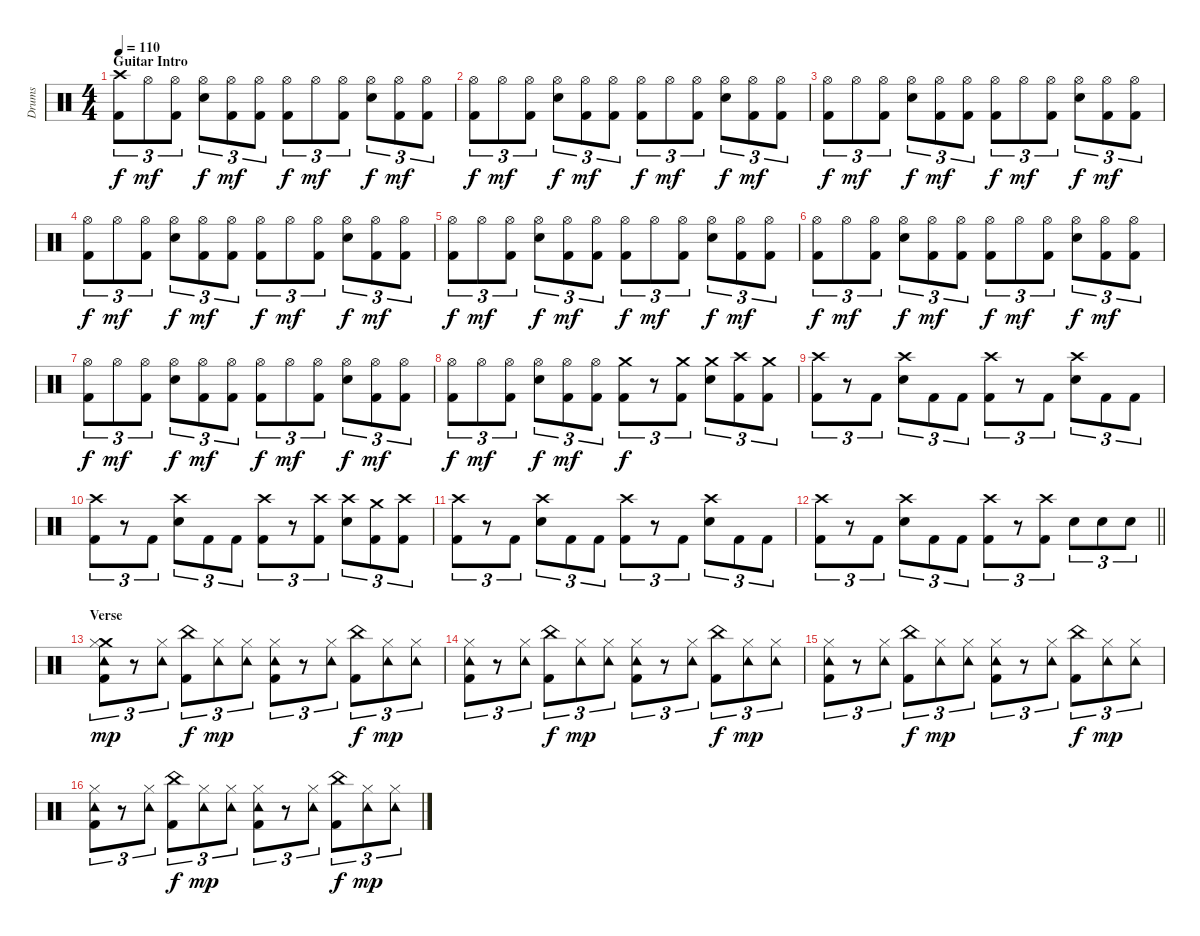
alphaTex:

\track ("Drums" "Drums") {instrument percussion}
\staff {score}
\articulation defaults
\ts (4 4)
\section ("" "Guitar Intro")
\tempo 110
\clef neutral
\ks c
("Crash high (hit)" "Kick (hit) 2").8{tu (3 2) dy f} "Hi-Hat (open)".8{tu (3 2) dy mf} ("Hi-Hat (open)" "Kick (hit) 2").8{tu (3 2)} ("Hi-Hat (open)" "Electric Snare (hit)").8{tu (3 2) dy f} ("Hi-Hat (open)" "Kick (hit) 2").8{tu (3 2) dy mf} ("Hi-Hat (open)" "Kick (hit) 2").8{tu (3 2)} ("Hi-Hat (open)" "Kick (hit) 2").8{tu (3 2) dy f} "Hi-Hat (open)".8{tu (3 2) dy mf} ("Hi-Hat (open)" "Kick (hit) 2").8{tu (3 2)} ("Hi-Hat (open)" "Electric Snare (hit)").8{tu (3 2) dy f} ("Hi-Hat (open)" "Kick (hit) 2").8{tu (3 2) dy mf} ("Hi-Hat (open)" "Kick (hit) 2").8{tu (3 2)} |
("Hi-Hat (open)" "Kick (hit) 2").8{tu (3 2) dy f} "Hi-Hat (open)".8{tu (3 2) dy mf} ("Hi-Hat (open)" "Kick (hit) 2").8{tu (3 2)} ("Hi-Hat (open)" "Electric Snare (hit)").8{tu (3 2) dy f} ("Hi-Hat (open)" "Kick (hit) 2").8{tu (3 2) dy mf} ("Hi-Hat (open)" "Kick (hit) 2").8{tu (3 2)} ("Hi-Hat (open)" "Kick (hit) 2").8{tu (3 2) dy f} "Hi-Hat (open)".8{tu (3 2) dy mf} ("Hi-Hat (open)" "Kick (hit) 2").8{tu (3 2)} ("Hi-Hat (open)" "Electric Snare (hit)").8{tu (3 2) dy f} ("Hi-Hat (open)" "Kick (hit) 2").8{tu (3 2) dy mf} ("Hi-Hat (open)" "Kick (hit) 2").8{tu (3 2)} |
("Hi-Hat (open)" "Kick (hit) 2").8{tu (3 2) dy f} "Hi-Hat (open)".8{tu (3 2) dy mf} ("Hi-Hat (open)" "Kick (hit) 2").8{tu (3 2)} ("Hi-Hat (open)" "Electric Snare (hit)").8{tu (3 2) dy f} ("Hi-Hat (open)" "Kick (hit) 2").8{tu (3 2) dy mf} ("Hi-Hat (open)" "Kick (hit) 2").8{tu (3 2)} ("Hi-Hat (open)" "Kick (hit) 2").8{tu (3 2) dy f} "Hi-Hat (open)".8{tu (3 2) dy mf} ("Hi-Hat (open)" "Kick (hit) 2").8{tu (3 2)} ("Hi-Hat (open)" "Electric Snare (hit)").8{tu (3 2) dy f} ("Hi-Hat (open)" "Kick (hit) 2").8{tu (3 2) dy mf} ("Hi-Hat (open)" "Kick (hit) 2").8{tu (3 2)} |
("Hi-Hat (open)" "Kick (hit) 2").8{tu (3 2) dy f} "Hi-Hat (open)".8{tu (3 2) dy mf} ("Hi-Hat (open)" "Kick (hit) 2").8{tu (3 2)} ("Hi-Hat (open)" "Electric Snare (hit)").8{tu (3 2) dy f} ("Hi-Hat (open)" "Kick (hit) 2").8{tu (3 2) dy mf} ("Hi-Hat (open)" "Kick (hit) 2").8{tu (3 2)} ("Hi-Hat (open)" "Kick (hit) 2").8{tu (3 2) dy f} "Hi-Hat (open)".8{tu (3 2) dy mf} ("Hi-Hat (open)" "Kick (hit) 2").8{tu (3 2)} ("Hi-Hat (open)" "Electric Snare (hit)").8{tu (3 2) dy f} ("Hi-Hat (open)" "Kick (hit) 2").8{tu (3 2) dy mf} ("Hi-Hat (open)" "Kick (hit) 2").8{tu (3 2)} |
("Hi-Hat (open)" "Kick (hit) 2").8{tu (3 2) dy f} "Hi-Hat (open)".8{tu (3 2) dy mf} ("Hi-Hat (open)" "Kick (hit) 2").8{tu (3 2)} ("Hi-Hat (open)" "Electric Snare (hit)").8{tu (3 2) dy f} ("Hi-Hat (open)" "Kick (hit) 2").8{tu (3 2) dy mf} ("Hi-Hat (open)" "Kick (hit) 2").8{tu (3 2)} ("Hi-Hat (open)" "Kick (hit) 2").8{tu (3 2) dy f} "Hi-Hat (open)".8{tu (3 2) dy mf} ("Hi-Hat (open)" "Kick (hit) 2").8{tu (3 2)} ("Hi-Hat (open)" "Electric Snare (hit)").8{tu (3 2) dy f} ("Hi-Hat (open)" "Kick (hit) 2").8{tu (3 2) dy mf} ("Hi-Hat (open)" "Kick (hit) 2").8{tu (3 2)} |
("Hi-Hat (open)" "Kick (hit) 2").8{tu (3 2) dy f} "Hi-Hat (open)".8{tu (3 2) dy mf} ("Hi-Hat (open)" "Kick (hit) 2").8{tu (3 2)} ("Hi-Hat (open)" "Electric Snare (hit)").8{tu (3 2) dy f} ("Hi-Hat (open)" "Kick (hit) 2").8{tu (3 2) dy mf} ("Hi-Hat (open)" "Kick (hit) 2").8{tu (3 2)} ("Hi-Hat (open)" "Kick (hit) 2").8{tu (3 2) dy f} "Hi-Hat (open)".8{tu (3 2) dy mf} ("Hi-Hat (open)" "Kick (hit) 2").8{tu (3 2)} ("Hi-Hat (open)" "Electric Snare (hit)").8{tu (3 2) dy f} ("Hi-Hat (open)" "Kick (hit) 2").8{tu (3 2) dy mf} ("Hi-Hat (open)" "Kick (hit) 2").8{tu (3 2)} |
("Hi-Hat (open)" "Kick (hit) 2").8{tu (3 2) dy f} "Hi-Hat (open)".8{tu (3 2) dy mf} ("Hi-Hat (open)" "Kick (hit) 2").8{tu (3 2)} ("Hi-Hat (open)" "Electric Snare (hit)").8{tu (3 2) dy f} ("Hi-Hat (open)" "Kick (hit) 2").8{tu (3 2) dy mf} ("Hi-Hat (open)" "Kick (hit) 2").8{tu (3 2)} ("Hi-Hat (open)" "Kick (hit) 2").8{tu (3 2) dy f} "Hi-Hat (open)".8{tu (3 2) dy mf} ("Hi-Hat (open)" "Kick (hit) 2").8{tu (3 2)} ("Hi-Hat (open)" "Electric Snare (hit)").8{tu (3 2) dy f} ("Hi-Hat (open)" "Kick (hit) 2").8{tu (3 2) dy mf} ("Hi-Hat (open)" "Kick (hit) 2").8{tu (3 2)} |
("Hi-Hat (open)" "Kick (hit) 2").8{tu (3 2) dy f} "Hi-Hat (open)".8{tu (3 2) dy mf} ("Hi-Hat (open)" "Kick (hit) 2").8{tu (3 2)} ("Hi-Hat (open)" "Electric Snare (hit)").8{tu (3 2) dy f} ("Hi-Hat (open)" "Kick (hit) 2").8{tu (3 2) dy mf} ("Hi-Hat (open)" "Kick (hit) 2").8{tu (3 2)} ("Crash medium (hit)" "Kick (hit) 2").8{tu (3 2) dy f} r.8{tu (3 2)} ("Crash medium (hit)" "Kick (hit) 2").8{tu (3 2)} ("Crash medium (hit)" "Electric Snare (hit)").8{tu (3 2)} ("Crash high (hit)" "Kick (hit) 2").8{tu (3 2)} ("Crash medium (hit)" "Kick (hit) 2").8{tu (3 2)} |
("Crash high (hit)" "Kick (hit) 2").8{tu (3 2)} r.8{tu (3 2)} "Kick (hit) 2".8{tu (3 2)} ("Crash high (hit)" "Electric Snare (hit)").8{tu (3 2)} "Kick (hit) 2".8{tu (3 2)} "Kick (hit) 2".8{tu (3 2)} ("Crash high (hit)" "Kick (hit) 2").8{tu (3 2)} r.8{tu (3 2)} "Kick (hit) 2".8{tu (3 2)} ("Crash high (hit)" "Electric Snare (hit)").8{tu (3 2)} "Kick (hit) 2".8{tu (3 2)} "Kick (hit) 2".8{tu (3 2)} |
("Crash high (hit)" "Kick (hit) 2").8{tu (3 2)} r.8{tu (3 2)} "Kick (hit) 2".8{tu (3 2)} ("Crash high (hit)" "Electric Snare (hit)").8{tu (3 2)} "Kick (hit) 2".8{tu (3 2)} "Kick (hit) 2".8{tu (3 2)} ("Crash high (hit)" "Kick (hit) 2").8{tu (3 2)} r.8{tu (3 2)} ("Crash high (hit)" "Kick (hit) 2").8{tu (3 2)} ("Crash high (hit)" "Electric Snare (hit)").8{tu (3 2)} ("Crash medium (hit)" "Kick (hit) 2").8{tu (3 2)} ("Crash high (hit)" "Kick (hit) 2").8{tu (3 2)} |
("Crash high (hit)" "Kick (hit) 2").8{tu (3 2)} r.8{tu (3 2)} "Kick (hit) 2".8{tu (3 2)} ("Crash high (hit)" "Electric Snare (hit)").8{tu (3 2)} "Kick (hit) 2".8{tu (3 2)} "Kick (hit) 2".8{tu (3 2)} ("Crash high (hit)" "Kick (hit) 2").8{tu (3 2)} r.8{tu (3 2)} "Kick (hit) 2".8{tu (3 2)} ("Crash high (hit)" "Electric Snare (hit)").8{tu (3 2)} "Kick (hit) 2".8{tu (3 2)} "Kick (hit) 2".8{tu (3 2)} |
\barLineRight lightlight
("Crash high (hit)" "Kick (hit) 2").8{tu (3 2)} r.8{tu (3 2)} "Kick (hit) 2".8{tu (3 2)} ("Crash high (hit)" "Electric Snare (hit)").8{tu (3 2)} "Kick (hit) 2".8{tu (3 2)} "Kick (hit) 2".8{tu (3 2)} ("Crash high (hit)" "Kick (hit) 2").8{tu (3 2)} r.8{tu (3 2)} ("Crash high (hit)" "Kick (hit) 2").8{tu (3 2)} "Electric Snare (hit)".8{tu (3 2)} "Electric Snare (hit)".8{tu (3 2)} "Electric Snare (hit)".8{tu (3 2)} |
\section ("" "Verse")
("Crash medium (hit)" "Hi-Hat (closed)" "Tambourine (hit)" "Kick (hit) 2").8{tu (3 2) dy mp} r.8{tu (3 2)} ("Hi-Hat (closed)" "Tambourine (hit)").8{tu (3 2)} ("China (hit)" "Kick (hit) 2").8{tu (3 2) dy f} ("Hi-Hat (closed)" "Tambourine (hit)").8{tu (3 2) dy mp} ("Hi-Hat (closed)" "Tambourine (hit)").8{tu (3 2)} ("Hi-Hat (closed)" "Tambourine (hit)" "Kick (hit) 2").8{tu (3 2)} r.8{tu (3 2)} ("Hi-Hat (closed)" "Tambourine (hit)").8{tu (3 2)} ("China (hit)" "Kick (hit) 2").8{tu (3 2) dy f} ("Hi-Hat (closed)" "Tambourine (hit)").8{tu (3 2) dy mp} ("Hi-Hat (closed)" "Tambourine (hit)").8{tu (3 2)} |
("Hi-Hat (closed)" "Tambourine (hit)" "Kick (hit) 2").8{tu (3 2)} r.8{tu (3 2)} ("Hi-Hat (closed)" "Tambourine (hit)").8{tu (3 2)} ("China (hit)" "Kick (hit) 2").8{tu (3 2) dy f} ("Hi-Hat (closed)" "Tambourine (hit)").8{tu (3 2) dy mp} ("Hi-Hat (closed)" "Tambourine (hit)").8{tu (3 2)} ("Hi-Hat (closed)" "Tambourine (hit)" "Kick (hit) 2").8{tu (3 2)} r.8{tu (3 2)} ("Hi-Hat (closed)" "Tambourine (hit)").8{tu (3 2)} ("China (hit)" "Kick (hit) 2").8{tu (3 2) dy f} ("Hi-Hat (closed)" "Tambourine (hit)").8{tu (3 2) dy mp} ("Hi-Hat (closed)" "Tambourine (hit)").8{tu (3 2)} |
("Hi-Hat (closed)" "Tambourine (hit)" "Kick (hit) 2").8{tu (3 2)} r.8{tu (3 2)} ("Hi-Hat (closed)" "Tambourine (hit)").8{tu (3 2)} ("China (hit)" "Kick (hit) 2").8{tu (3 2) dy f} ("Hi-Hat (closed)" "Tambourine (hit)").8{tu (3 2) dy mp} ("Hi-Hat (closed)" "Tambourine (hit)").8{tu (3 2)} ("Hi-Hat (closed)" "Tambourine (hit)" "Kick (hit) 2").8{tu (3 2)} r.8{tu (3 2)} ("Hi-Hat (closed)" "Tambourine (hit)").8{tu (3 2)} ("China (hit)" "Kick (hit) 2").8{tu (3 2) dy f} ("Hi-Hat (closed)" "Tambourine (hit)").8{tu (3 2) dy mp} ("Hi-Hat (closed)" "Tambourine (hit)").8{tu (3 2)} |
("Hi-Hat (closed)" "Tambourine (hit)" "Kick (hit) 2").8{tu (3 2)} r.8{tu (3 2)} ("Hi-Hat (closed)" "Tambourine (hit)").8{tu (3 2)} ("China (hit)" "Kick (hit) 2").8{tu (3 2) dy f} ("Hi-Hat (closed)" "Tambourine (hit)").8{tu (3 2) dy mp} ("Hi-Hat (closed)" "Tambourine (hit)").8{tu (3 2)} ("Hi-Hat (closed)" "Tambourine (hit)" "Kick (hit) 2").8{tu (3 2)} r.8{tu (3 2)} ("Hi-Hat (closed)" "Tambourine (hit)").8{tu (3 2)} ("China (hit)" "Kick (hit) 2").8{tu (3 2) dy f} ("Hi-Hat (closed)" "Tambourine (hit)").8{tu (3 2) dy mp} ("Hi-Hat (closed)" "Tambourine (hit)").8{tu (3 2)}
